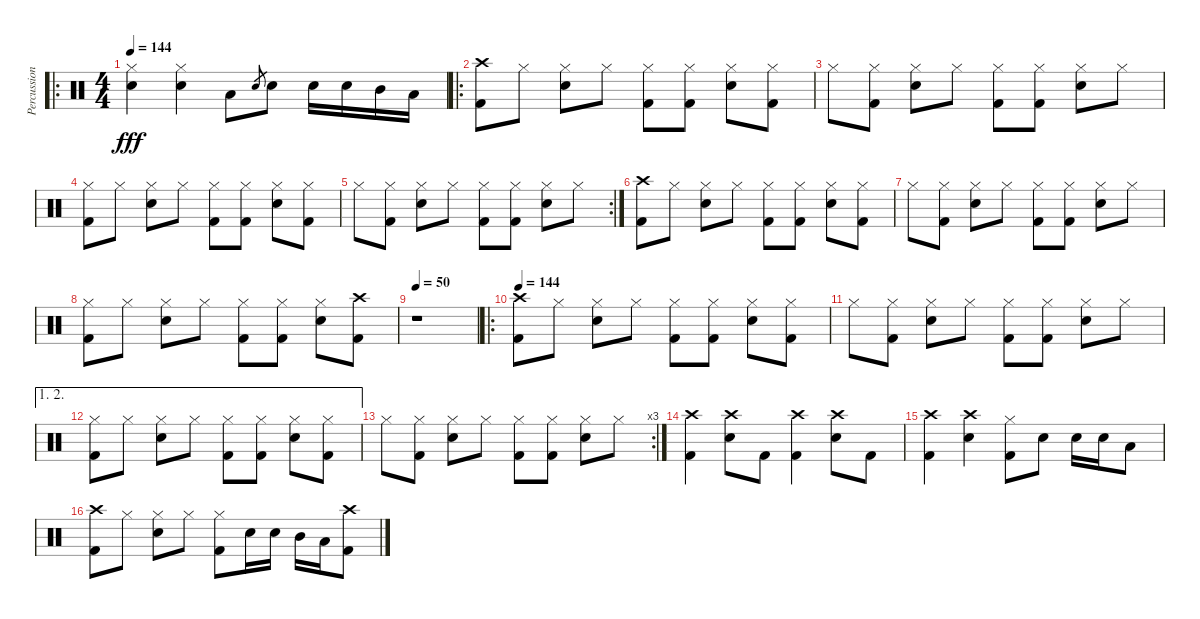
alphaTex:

\track ("Percussion" "Percussion") {instrument percussion}
\staff {score}
\articulation defaults
\ro
\ts (4 4)
\tempo 144
\clef neutral
\ks c
("Snare (hit) 2" "Hi-Hat (closed)").4{dy fff} ("Snare (hit) 2" "Hi-Hat (closed)").4 "Low Tom (hit)".8 "Snare (hit) 2".8{gr} "Snare (hit) 2".8 "Snare (hit) 2".16 "Snare (hit) 2".16 "Mid Tom (hit)".16 "Low Tom (hit)".16 |
\ro
("Kick (hit) 2" "Crash high (hit)").8 "Hi-Hat (closed)".8 ("Snare (hit) 2" "Hi-Hat (closed)").8 "Hi-Hat (closed)".8 ("Kick (hit) 2" "Hi-Hat (closed)").8 ("Kick (hit) 2" "Hi-Hat (closed)").8 ("Snare (hit) 2" "Hi-Hat (closed)").8 ("Kick (hit) 2" "Hi-Hat (closed)").8 |
"Hi-Hat (closed)".8 ("Kick (hit) 2" "Hi-Hat (closed)").8 ("Snare (hit) 2" "Hi-Hat (closed)").8 "Hi-Hat (closed)".8 ("Kick (hit) 2" "Hi-Hat (closed)").8 ("Kick (hit) 2" "Hi-Hat (closed)").8 ("Snare (hit) 2" "Hi-Hat (closed)").8 "Hi-Hat (closed)".8 |
("Kick (hit) 2" "Hi-Hat (closed)").8 "Hi-Hat (closed)".8 ("Snare (hit) 2" "Hi-Hat (closed)").8 "Hi-Hat (closed)".8 ("Kick (hit) 2" "Hi-Hat (closed)").8 ("Kick (hit) 2" "Hi-Hat (closed)").8 ("Snare (hit) 2" "Hi-Hat (closed)").8 ("Kick (hit) 2" "Hi-Hat (closed)").8 |
\rc 2 "Hi-Hat (closed)".8
("Kick (hit) 2" "Hi-Hat (closed)").8 ("Snare (hit) 2" "Hi-Hat (closed)").8 "Hi-Hat (closed)".8 ("Kick (hit) 2" "Hi-Hat (closed)").8 ("Kick (hit) 2" "Hi-Hat (closed)").8 ("Snare (hit) 2" "Hi-Hat (closed)").8 "Hi-Hat (closed)".8 |
("Kick (hit) 2" "Crash high (hit)").8 "Hi-Hat (closed)".8 ("Snare (hit) 2" "Hi-Hat (closed)").8 "Hi-Hat (closed)".8 ("Kick (hit) 2" "Hi-Hat (closed)").8 ("Kick (hit) 2" "Hi-Hat (closed)").8 ("Snare (hit) 2" "Hi-Hat (closed)").8 ("Kick (hit) 2" "Hi-Hat (closed)").8 |
"Hi-Hat (closed)".8 ("Kick (hit) 2" "Hi-Hat (closed)").8 ("Snare (hit) 2" "Hi-Hat (closed)").8 "Hi-Hat (closed)".8 ("Kick (hit) 2" "Hi-Hat (closed)").8 ("Kick (hit) 2" "Hi-Hat (closed)").8 ("Snare (hit) 2" "Hi-Hat (closed)").8 "Hi-Hat (closed)".8 |
("Kick (hit) 2" "Hi-Hat (closed)").8 "Hi-Hat (closed)".8 ("Snare (hit) 2" "Hi-Hat (closed)").8 "Hi-Hat (closed)".8 ("Kick (hit) 2" "Hi-Hat (closed)").8 ("Kick (hit) 2" "Hi-Hat (closed)").8 ("Snare (hit) 2" "Hi-Hat (closed)").8 ("Kick (hit) 2" "Crash high (hit)").8 |
\tempo 50
r.1 |
\ro
\tempo 144
("Kick (hit) 2" "Crash high (hit)").8 "Hi-Hat (closed)".8 ("Snare (hit) 2" "Hi-Hat (closed)").8 "Hi-Hat (closed)".8 ("Kick (hit) 2" "Hi-Hat (closed)").8 ("Kick (hit) 2" "Hi-Hat (closed)").8 ("Snare (hit) 2" "Hi-Hat (closed)").8 ("Kick (hit) 2" "Hi-Hat (closed)").8 |
"Hi-Hat (closed)".8 ("Kick (hit) 2" "Hi-Hat (closed)").8 ("Snare (hit) 2" "Hi-Hat (closed)").8 "Hi-Hat (closed)".8 ("Kick (hit) 2" "Hi-Hat (closed)").8 ("Kick (hit) 2" "Hi-Hat (closed)").8 ("Snare (hit) 2" "Hi-Hat (closed)").8 "Hi-Hat (closed)".8 |
\ae (1 2)
("Kick (hit) 2" "Hi-Hat (closed)").8 "Hi-Hat (closed)".8 ("Snare (hit) 2" "Hi-Hat (closed)").8 "Hi-Hat (closed)".8 ("Kick (hit) 2" "Hi-Hat (closed)").8 ("Kick (hit) 2" "Hi-Hat (closed)").8 ("Snare (hit) 2" "Hi-Hat (closed)").8 ("Kick (hit) 2" "Hi-Hat (closed)").8 |
\rc 3 "Hi-Hat (closed)".8
("Kick (hit) 2" "Hi-Hat (closed)").8 ("Snare (hit) 2" "Hi-Hat (closed)").8 "Hi-Hat (closed)".8 ("Kick (hit) 2" "Hi-Hat (closed)").8 ("Kick (hit) 2" "Hi-Hat (closed)").8 ("Snare (hit) 2" "Hi-Hat (closed)").8 "Hi-Hat (closed)".8 |
("Kick (hit) 2" "Crash high (hit)").4 ("Snare (hit) 2" "Crash high (hit)").8 "Kick (hit) 2".8 ("Kick (hit) 2" "Crash high (hit)").4 ("Snare (hit) 2" "Crash high (hit)").8 "Kick (hit) 2".8 |
("Kick (hit) 2" "Crash high (hit)").4 ("Snare (hit) 2" "Crash high (hit)").4 ("Kick (hit) 2" "Hi-Hat (closed)").8 "Snare (hit) 2".8 "Snare (hit) 2".16 "Snare (hit) 2".16 "Low Tom (hit)".8 |
("Kick (hit) 2" "Crash high (hit)").8 "Hi-Hat (closed)".8 ("Snare (hit) 2" "Hi-Hat (closed)").8 "Hi-Hat (closed)".8 ("Kick (hit) 2" "Hi-Hat (closed)").8 "Snare (hit) 2".16 "Snare (hit) 2".16 "Mid Tom (hit)".16 "Low Tom (hit)".16 ("Kick (hit) 2" "Crash high (hit)").8
